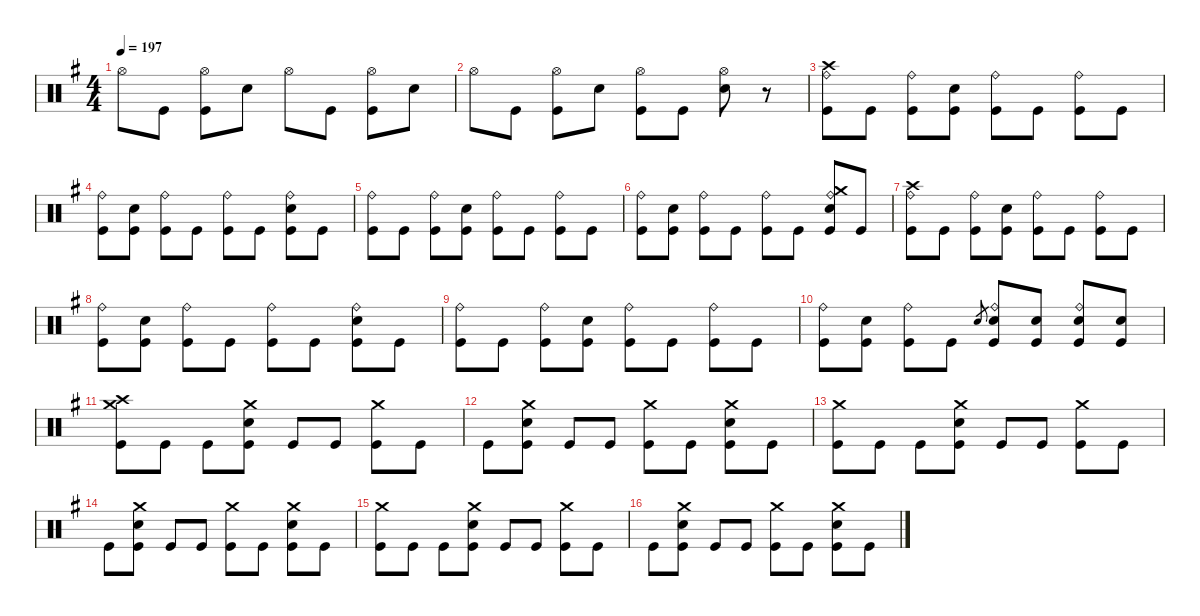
\defaultSystemsLayout 4
\hideDynamics
\bracketExtendMode nobrackets
\singleTrackTrackNamePolicy hidden
\multiTrackTrackNamePolicy hidden
\firstSystemTrackNameMode fullname
\firstSystemTrackNameOrientation horizontal
\otherSystemsTrackNameOrientation horizontal
\track ("Drums" "drm.") {defaultSystemsLayout 4 instrument percussion}
\staff {score}
\articulation defaults
\ts (4 4)
\tempo 197
\clef neutral
\ks eminor "Hi-Hat (open)"{acc forcenatural}.8{dy mf beam Down} "Kick (hit)"{acc forcenatural}.8{dy f beam Down}
("Hi-Hat (open)"{acc forcenatural} "Kick (hit)"{acc forcenatural}).8{dy mf beam Down} "Snare (hit) 2"{acc forcenatural}.8{dy f beam Down} "Hi-Hat (open)"{acc forcenatural}.8{dy mf beam Down} "Kick (hit)"{acc forcenatural}.8{dy f beam Down} ("Hi-Hat (open)"{acc forcenatural} "Kick (hit)"{acc forcenatural}).8{dy mf beam Down} "Snare (hit) 2"{acc forcenatural}.8{dy f beam Down} |
"Hi-Hat (open)"{acc forcenatural}.8{dy mf beam Down} "Kick (hit)"{acc forcenatural}.8{dy f beam Down} ("Hi-Hat (open)"{acc forcenatural} "Kick (hit)"{acc forcenatural}).8{dy mf beam Down} "Snare (hit) 2"{acc forcenatural}.8{dy f beam Down} ("Hi-Hat (open)"{acc forcenatural} "Kick (hit)"{acc forcenatural}).8{dy mf beam Down} "Kick (hit)"{acc forcenatural}.8{dy f beam Down} ("Hi-Hat (open)"{acc forcenatural} "Snare (hit) 2"{acc forcenatural}).8{dy mf beam Down} r.8{beam Down} |
("Crash high (hit)"{acc forcenatural} "Ride (bell)"{acc forcenatural} "Kick (hit)"{acc forcenatural}).8{dy f beam Down} "Kick (hit)"{acc forcenatural}.8{beam Down} ("Ride (bell)"{acc forcenatural} "Kick (hit)"{acc forcenatural}).8{beam Down} ("Snare (hit) 2"{acc forcenatural} "Kick (hit)"{acc forcenatural}).8{beam Down} ("Ride (bell)"{acc forcenatural} "Kick (hit)"{acc forcenatural}).8{beam Down} "Kick (hit)"{acc forcenatural}.8{beam Down} ("Ride (bell)"{acc forcenatural} "Kick (hit)"{acc forcenatural}).8{beam Down} "Kick (hit)"{acc forcenatural}.8{beam Down} |
("Ride (bell)"{acc forcenatural} "Kick (hit)"{acc forcenatural}).8{beam Down} ("Snare (hit) 2"{acc forcenatural} "Kick (hit)"{acc forcenatural}).8{beam Down} ("Ride (bell)"{acc forcenatural} "Kick (hit)"{acc forcenatural}).8{beam Down} "Kick (hit)"{acc forcenatural}.8{beam Down} ("Ride (bell)"{acc forcenatural} "Kick (hit)"{acc forcenatural}).8{beam Down} "Kick (hit)"{acc forcenatural}.8{beam Down} ("Ride (bell)"{acc forcenatural} "Snare (hit) 2"{acc forcenatural} "Kick (hit)"{acc forcenatural}).8{beam Down} "Kick (hit)"{acc forcenatural}.8{beam Down} |
("Ride (bell)"{acc forcenatural} "Kick (hit)"{acc forcenatural}).8{beam Down} "Kick (hit)"{acc forcenatural}.8{beam Down} ("Ride (bell)"{acc forcenatural} "Kick (hit)"{acc forcenatural}).8{beam Down} ("Snare (hit) 2"{acc forcenatural} "Kick (hit)"{acc forcenatural}).8{beam Down} ("Ride (bell)"{acc forcenatural} "Kick (hit)"{acc forcenatural}).8{beam Down} "Kick (hit)"{acc forcenatural}.8{beam Down} ("Ride (bell)"{acc forcenatural} "Kick (hit)"{acc forcenatural}).8{beam Down} "Kick (hit)"{acc forcenatural}.8{beam Down} |
("Ride (bell)"{acc forcenatural} "Kick (hit)"{acc forcenatural}).8{beam Down} ("Snare (hit) 2"{acc forcenatural} "Kick (hit)"{acc forcenatural}).8{beam Down} ("Ride (bell)"{acc forcenatural} "Kick (hit)"{acc forcenatural}).8{beam Down} "Kick (hit)"{acc forcenatural}.8{beam Down} ("Ride (bell)"{acc forcenatural} "Kick (hit)"{acc forcenatural}).8{beam Down} "Kick (hit)"{acc forcenatural}.8{beam Down} ("Crash medium (hit)"{acc forcenatural} "Ride (bell)"{acc forcenatural} "Snare (hit) 2"{acc forcenatural} "Kick (hit)"{acc forcenatural}).8{beam Up} "Kick (hit)"{acc forcenatural}.8{beam Up} |
("Crash high (hit)"{acc forcenatural} "Ride (bell)"{acc forcenatural} "Kick (hit)"{acc forcenatural}).8{beam Down} "Kick (hit)"{acc forcenatural}.8{beam Down} ("Ride (bell)"{acc forcenatural} "Kick (hit)"{acc forcenatural}).8{beam Down} ("Snare (hit) 2"{acc forcenatural} "Kick (hit)"{acc forcenatural}).8{beam Down} ("Ride (bell)"{acc forcenatural} "Kick (hit)"{acc forcenatural}).8{beam Down} "Kick (hit)"{acc forcenatural}.8{beam Down} ("Ride (bell)"{acc forcenatural} "Kick (hit)"{acc forcenatural}).8{beam Down} "Kick (hit)"{acc forcenatural}.8{beam Down} |
("Ride (bell)"{acc forcenatural} "Kick (hit)"{acc forcenatural}).8{beam Down} ("Snare (hit) 2"{acc forcenatural} "Kick (hit)"{acc forcenatural}).8{beam Down} ("Ride (bell)"{acc forcenatural} "Kick (hit)"{acc forcenatural}).8{beam Down} "Kick (hit)"{acc forcenatural}.8{beam Down} ("Ride (bell)"{acc forcenatural} "Kick (hit)"{acc forcenatural}).8{beam Down} "Kick (hit)"{acc forcenatural}.8{beam Down} ("Ride (bell)"{acc forcenatural} "Snare (hit) 2"{acc forcenatural} "Kick (hit)"{acc forcenatural}).8{beam Down} "Kick (hit)"{acc forcenatural}.8{beam Down} |
("Ride (bell)"{acc forcenatural} "Kick (hit)"{acc forcenatural}).8{beam Down} "Kick (hit)"{acc forcenatural}.8{beam Down} ("Ride (bell)"{acc forcenatural} "Kick (hit)"{acc forcenatural}).8{beam Down} ("Snare (hit) 2"{acc forcenatural} "Kick (hit)"{acc forcenatural}).8{beam Down} ("Ride (bell)"{acc forcenatural} "Kick (hit)"{acc forcenatural}).8{beam Down} "Kick (hit)"{acc forcenatural}.8{beam Down} ("Ride (bell)"{acc forcenatural} "Kick (hit)"{acc forcenatural}).8{beam Down} "Kick (hit)"{acc forcenatural}.8{beam Down} |
("Ride (bell)"{acc forcenatural} "Kick (hit)"{acc forcenatural}).8{beam Down} ("Snare (hit) 2"{acc forcenatural} "Kick (hit)"{acc forcenatural}).8{beam Down} ("Ride (bell)"{acc forcenatural} "Kick (hit)"{acc forcenatural}).8{beam Down} "Kick (hit)"{acc forcenatural}.8{beam Down} "Electric Snare (hit)"{acc forcenatural}.8{gr dy mf beam Up} ("Ride (bell)"{acc forcenatural} "Snare (hit) 2"{acc forcenatural} "Kick (hit)"{acc forcenatural}).8{dy f beam Up} ("Snare (hit) 2"{acc forcenatural} "Kick (hit)"{acc forcenatural}).8{beam Up} ("Ride (bell)"{acc forcenatural} "Snare (hit) 2"{acc forcenatural} "Kick (hit)"{acc forcenatural}).8{beam Up} ("Snare (hit) 2"{acc forcenatural} "Kick (hit)"{acc forcenatural}).8{beam Up} |
("Crash high (hit)"{acc forcenatural} "Crash medium (hit)"{acc forcenatural} "Kick (hit)"{acc forcenatural}).8{beam Down} "Kick (hit)"{acc forcenatural}.8{beam Down} "Kick (hit)"{acc forcenatural}.8{beam Down} ("Crash medium (hit)"{acc forcenatural} "Snare (hit) 2"{acc forcenatural} "Kick (hit)"{acc forcenatural}).8{beam Down} "Kick (hit)"{acc forcenatural}.8{beam Up} "Kick (hit)"{acc forcenatural}.8{beam Up} ("Crash medium (hit)"{acc forcenatural} "Kick (hit)"{acc forcenatural}).8{beam Down} "Kick (hit)"{acc forcenatural}.8{beam Down} |
"Kick (hit)"{acc forcenatural}.8{beam Down} ("Crash medium (hit)"{acc forcenatural} "Snare (hit) 2"{acc forcenatural} "Kick (hit)"{acc forcenatural}).8{beam Down} "Kick (hit)"{acc forcenatural}.8{beam Up} "Kick (hit)"{acc forcenatural}.8{beam Up} ("Crash medium (hit)"{acc forcenatural} "Kick (hit)"{acc forcenatural}).8{beam Down} "Kick (hit)"{acc forcenatural}.8{beam Down} ("Crash medium (hit)"{acc forcenatural} "Snare (hit) 2"{acc forcenatural} "Kick (hit)"{acc forcenatural}).8{beam Down} "Kick (hit)"{acc forcenatural}.8{beam Down} |
("Crash medium (hit)"{acc forcenatural} "Kick (hit)"{acc forcenatural}).8{beam Down} "Kick (hit)"{acc forcenatural}.8{beam Down} "Kick (hit)"{acc forcenatural}.8{beam Down} ("Crash medium (hit)"{acc forcenatural} "Snare (hit) 2"{acc forcenatural} "Kick (hit)"{acc forcenatural}).8{beam Down} "Kick (hit)"{acc forcenatural}.8{beam Up} "Kick (hit)"{acc forcenatural}.8{beam Up} ("Crash medium (hit)"{acc forcenatural} "Kick (hit)"{acc forcenatural}).8{beam Down} "Kick (hit)"{acc forcenatural}.8{beam Down} |
"Kick (hit)"{acc forcenatural}.8{beam Down} ("Crash medium (hit)"{acc forcenatural} "Snare (hit) 2"{acc forcenatural} "Kick (hit)"{acc forcenatural}).8{beam Down} "Kick (hit)"{acc forcenatural}.8{beam Up} "Kick (hit)"{acc forcenatural}.8{beam Up} ("Crash medium (hit)"{acc forcenatural} "Kick (hit)"{acc forcenatural}).8{beam Down} "Kick (hit)"{acc forcenatural}.8{beam Down} ("Crash medium (hit)"{acc forcenatural} "Snare (hit) 2"{acc forcenatural} "Kick (hit)"{acc forcenatural}).8{beam Down} "Kick (hit)"{acc forcenatural}.8{beam Down} |
("Crash medium (hit)"{acc forcenatural} "Kick (hit)"{acc forcenatural}).8{beam Down} "Kick (hit)"{acc forcenatural}.8{beam Down} "Kick (hit)"{acc forcenatural}.8{beam Down} ("Crash medium (hit)"{acc forcenatural} "Snare (hit) 2"{acc forcenatural} "Kick (hit)"{acc forcenatural}).8{beam Down} "Kick (hit)"{acc forcenatural}.8{beam Up} "Kick (hit)"{acc forcenatural}.8{beam Up} ("Crash medium (hit)"{acc forcenatural} "Kick (hit)"{acc forcenatural}).8{beam Down} "Kick (hit)"{acc forcenatural}.8{beam Down} |
"Kick (hit)"{acc forcenatural}.8{beam Down} ("Crash medium (hit)"{acc forcenatural} "Snare (hit) 2"{acc forcenatural} "Kick (hit)"{acc forcenatural}).8{beam Down} "Kick (hit)"{acc forcenatural}.8{beam Up} "Kick (hit)"{acc forcenatural}.8{beam Up} ("Crash medium (hit)"{acc forcenatural} "Kick (hit)"{acc forcenatural}).8{beam Down} "Kick (hit)"{acc forcenatural}.8{beam Down} ("Crash medium (hit)"{acc forcenatural} "Snare (hit) 2"{acc forcenatural} "Kick (hit)"{acc forcenatural}).8{beam Down} "Kick (hit)"{acc forcenatural}.8{beam Down}
